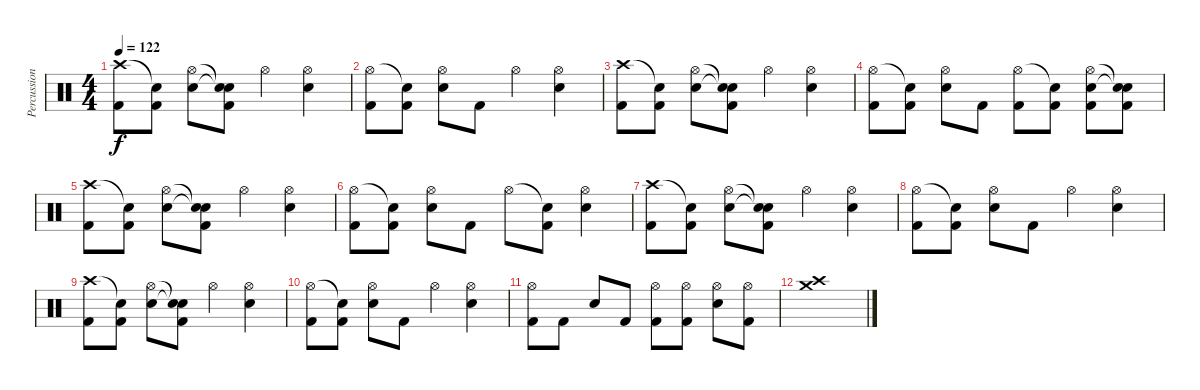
\track ("Percussion" "Percussion") {instrument percussion}
\staff {score}
\articulation defaults
\ts (4 4)
\tempo 122
\clef neutral
\ks c
("Crash high (hit)" "Kick (hit) 2").8{dy f} ("Snare (hit)"{t} "Kick (hit) 2").8 ("Snare (hit) 2" "Hi-Hat (open)").8 ("Snare (hit)"{t} "Snare (hit)"{t} "Kick (hit) 2").8 "Hi-Hat (open)".4 ("Snare (hit) 2" "Hi-Hat (open)").4 |
("Hi-Hat (open)" "Kick (hit) 2").8 ("Snare (hit)"{t} "Kick (hit) 2").8 ("Snare (hit) 2" "Hi-Hat (open)").8 "Kick (hit) 2".8 "Hi-Hat (open)".4 ("Snare (hit) 2" "Hi-Hat (open)").4 |
("Crash high (hit)" "Kick (hit) 2").8 ("Snare (hit)"{t} "Kick (hit) 2").8 ("Snare (hit) 2" "Hi-Hat (open)").8 ("Snare (hit)"{t} "Snare (hit)"{t} "Kick (hit) 2").8 "Hi-Hat (open)".4 ("Snare (hit) 2" "Hi-Hat (open)").4 |
("Hi-Hat (open)" "Kick (hit) 2").8 ("Snare (hit)"{t} "Kick (hit) 2").8 ("Snare (hit) 2" "Hi-Hat (open)").8 "Kick (hit) 2".8 ("Hi-Hat (open)" "Kick (hit) 2").8 ("Snare (hit)"{t} "Kick (hit) 2").8 ("Snare (hit) 2" "Hi-Hat (open)" "Kick (hit) 2").8 ("Snare (hit)"{t} "Snare (hit)"{t} "Kick (hit) 2").8 |
("Crash high (hit)" "Kick (hit) 2").8 ("Snare (hit)"{t} "Kick (hit) 2").8 ("Snare (hit) 2" "Hi-Hat (open)").8 ("Snare (hit)"{t} "Snare (hit)"{t} "Kick (hit) 2").8 "Hi-Hat (open)".4 ("Snare (hit) 2" "Hi-Hat (open)").4 |
("Hi-Hat (open)" "Kick (hit) 2").8 ("Snare (hit)"{t} "Kick (hit) 2").8 ("Snare (hit) 2" "Hi-Hat (open)").8 "Kick (hit) 2".8 "Hi-Hat (open)".8 ("Snare (hit)"{t} "Kick (hit) 2").8 ("Snare (hit) 2" "Hi-Hat (open)").4 |
("Crash high (hit)" "Kick (hit) 2").8 ("Snare (hit)"{t} "Kick (hit) 2").8 ("Snare (hit) 2" "Hi-Hat (open)").8 ("Snare (hit)"{t} "Snare (hit)"{t} "Kick (hit) 2").8 "Hi-Hat (open)".4 ("Snare (hit) 2" "Hi-Hat (open)").4 |
("Hi-Hat (open)" "Kick (hit) 2").8 ("Snare (hit)"{t} "Kick (hit) 2").8 ("Snare (hit) 2" "Hi-Hat (open)").8 "Kick (hit) 2".8 "Hi-Hat (open)".4 ("Snare (hit) 2" "Hi-Hat (open)").4 |
("Crash high (hit)" "Kick (hit) 2").8 ("Snare (hit)"{t} "Kick (hit) 2").8 ("Snare (hit) 2" "Hi-Hat (open)").8 ("Snare (hit)"{t} "Snare (hit)"{t} "Kick (hit) 2").8 "Hi-Hat (open)".4 ("Snare (hit) 2" "Hi-Hat (open)").4 |
("Hi-Hat (open)" "Kick (hit) 2").8 ("Snare (hit)"{t} "Kick (hit) 2").8 ("Snare (hit) 2" "Hi-Hat (open)").8 "Kick (hit) 2".8 "Hi-Hat (open)".4 ("Snare (hit) 2" "Hi-Hat (open)").4 |
("Hi-Hat (open)" "Kick (hit) 2").8 "Kick (hit) 2".8 "Snare (hit) 2".8 "Kick (hit) 2".8 ("Hi-Hat (open)" "Kick (hit) 2").8 ("Hi-Hat (open)" "Kick (hit) 2").8 ("Snare (hit) 2" "Hi-Hat (open)").8 ("Hi-Hat (open)" "Kick (hit) 2").8 |
("Crash high (hit)" "Crash medium (hit)").1
